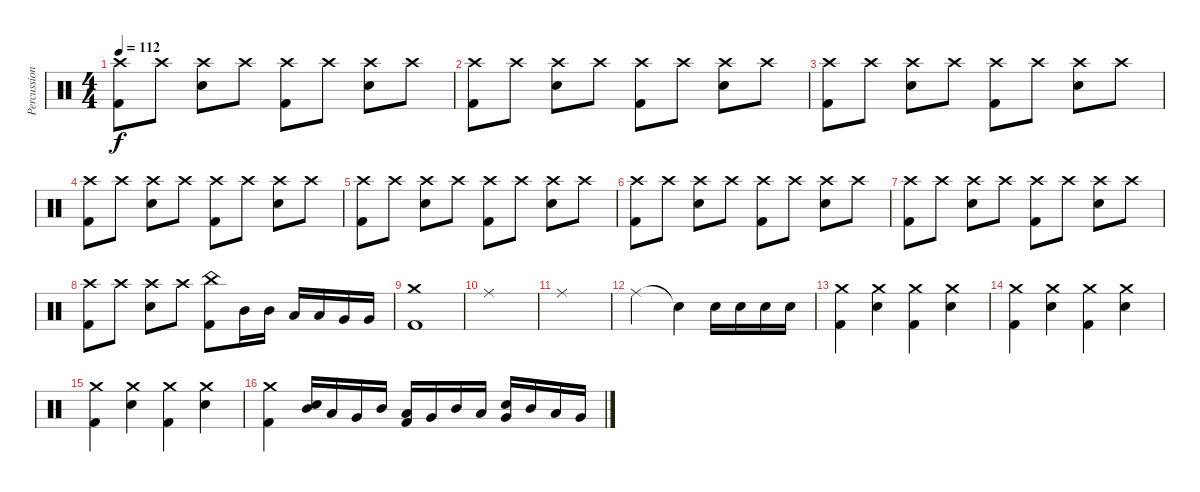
\track ("Percussion" "Percussion") {instrument percussion}
\staff {score}
\articulation defaults
\ts (4 4)
\tempo 112
\clef neutral
\ks c
("Crash high (hit)" "Kick (hit) 2").8{dy f} "Crash high (hit)".8 ("Crash high (hit)" "Snare (hit) 2").8 "Crash high (hit)".8 ("Crash high (hit)" "Kick (hit) 2").8 "Crash high (hit)".8 ("Crash high (hit)" "Snare (hit) 2").8 "Crash high (hit)".8 |
("Crash high (hit)" "Kick (hit) 2").8 "Crash high (hit)".8 ("Crash high (hit)" "Snare (hit) 2").8 "Crash high (hit)".8 ("Crash high (hit)" "Kick (hit) 2").8 "Crash high (hit)".8 ("Crash high (hit)" "Snare (hit) 2").8 "Crash high (hit)".8 |
("Crash high (hit)" "Kick (hit) 2").8 "Crash high (hit)".8 ("Crash high (hit)" "Snare (hit) 2").8 "Crash high (hit)".8 ("Crash high (hit)" "Kick (hit) 2").8 "Crash high (hit)".8 ("Crash high (hit)" "Snare (hit) 2").8 "Crash high (hit)".8 |
("Crash high (hit)" "Kick (hit) 2").8 "Crash high (hit)".8 ("Crash high (hit)" "Snare (hit) 2").8 "Crash high (hit)".8 ("Crash high (hit)" "Kick (hit) 2").8 "Crash high (hit)".8 ("Crash high (hit)" "Snare (hit) 2").8 "Crash high (hit)".8 |
("Crash high (hit)" "Kick (hit) 2").8 "Crash high (hit)".8 ("Crash high (hit)" "Snare (hit) 2").8 "Crash high (hit)".8 ("Crash high (hit)" "Kick (hit) 2").8 "Crash high (hit)".8 ("Crash high (hit)" "Snare (hit) 2").8 "Crash high (hit)".8 |
("Crash high (hit)" "Kick (hit) 2").8 "Crash high (hit)".8 ("Crash high (hit)" "Snare (hit) 2").8 "Crash high (hit)".8 ("Crash high (hit)" "Kick (hit) 2").8 "Crash high (hit)".8 ("Crash high (hit)" "Snare (hit) 2").8 "Crash high (hit)".8 |
("Crash high (hit)" "Kick (hit) 2").8 "Crash high (hit)".8 ("Crash high (hit)" "Snare (hit) 2").8 "Crash high (hit)".8 ("Crash high (hit)" "Kick (hit) 2").8 "Crash high (hit)".8 ("Crash high (hit)" "Snare (hit) 2").8 "Crash high (hit)".8 |
("Crash high (hit)" "Kick (hit) 2").8 "Crash high (hit)".8 ("Crash high (hit)" "Snare (hit) 2").8 "Crash high (hit)".8 ("China (hit)" "Kick (hit) 2").8 "Mid Tom (hit)".16 "Mid Tom (hit)".16 "Low Tom (hit)".16 "Low Tom (hit)".16 "Very Low Tom (hit)".16 "Very Low Tom (hit)".16 |
("Crash medium (hit)" "Kick (hit) 2").1 |
"Ride (middle)".1 |
"Ride (middle)".1 |
"Ride (middle)".2 "Snare (hit) 2"{t}.4 "Snare (hit) 2".16 "Snare (hit) 2".16 "Snare (hit) 2".16 "Snare (hit) 2".16 |
("Crash medium (hit)" "Kick (hit) 2").4 ("Crash medium (hit)" "Snare (hit) 2").4 ("Crash medium (hit)" "Kick (hit) 2").4 ("Crash medium (hit)" "Snare (hit) 2").4 |
("Crash medium (hit)" "Kick (hit) 2").4 ("Crash medium (hit)" "Snare (hit) 2").4 ("Crash medium (hit)" "Kick (hit) 2").4 ("Crash medium (hit)" "Snare (hit) 2").4 |
("Crash medium (hit)" "Kick (hit) 2").4 ("Crash medium (hit)" "Snare (hit) 2").4 ("Crash medium (hit)" "Kick (hit) 2").4 ("Crash medium (hit)" "Snare (hit) 2").4 |
("Crash medium (hit)" "Kick (hit) 2").4 ("Mid Tom (hit)" "Snare (hit) 2").16 "Low Tom (hit)".16 "Very Low Tom (hit)".16 "Mid Tom (hit)".16 ("Low Tom (hit)" "Kick (hit) 2").16 "Very Low Tom (hit)".16 "Mid Tom (hit)".16 "Low Tom (hit)".16 ("Very Low Tom (hit)" "Snare (hit) 2").16 "Mid Tom (hit)".16 "Low Tom (hit)".16 "Very Low Tom (hit)".16
